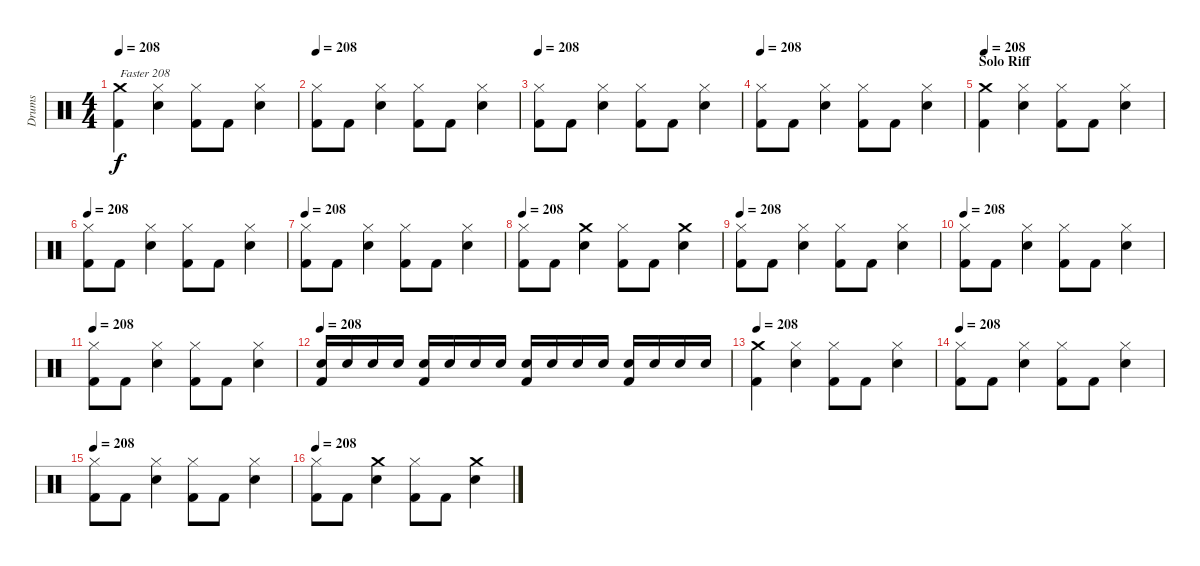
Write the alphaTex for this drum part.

\track ("Drums" "Drums") {instrument percussion}
\staff {score}
\articulation defaults
\ts (4 4)
\tempo 208
\clef neutral
\ks c
("Kick (hit) 2" "Crash medium (hit)").4{txt "Faster 208" dy f} ("Hi-Hat (closed)" "Snare (hit) 2").4 ("Kick (hit) 2" "Hi-Hat (closed)").8 "Kick (hit) 2".8 ("Snare (hit) 2" "Hi-Hat (closed)").4 |
\tempo 208
("Kick (hit) 2" "Hi-Hat (closed)").8 "Kick (hit) 2".8 ("Snare (hit) 2" "Hi-Hat (closed)").4 ("Kick (hit) 2" "Hi-Hat (closed)").8 "Kick (hit) 2".8 ("Snare (hit) 2" "Hi-Hat (closed)").4 |
\tempo 208
("Kick (hit) 2" "Hi-Hat (closed)").8 "Kick (hit) 2".8 ("Snare (hit) 2" "Hi-Hat (closed)").4 ("Kick (hit) 2" "Hi-Hat (closed)").8 "Kick (hit) 2".8 ("Snare (hit) 2" "Hi-Hat (closed)").4 |
\tempo 208
("Kick (hit) 2" "Hi-Hat (closed)").8 "Kick (hit) 2".8 ("Snare (hit) 2" "Hi-Hat (closed)").4 ("Kick (hit) 2" "Hi-Hat (closed)").8 "Kick (hit) 2".8 ("Snare (hit) 2" "Hi-Hat (closed)").4 |
\section ("" "Solo Riff")
\tempo 208
("Kick (hit) 2" "Crash medium (hit)").4 ("Hi-Hat (closed)" "Snare (hit) 2").4 ("Kick (hit) 2" "Hi-Hat (closed)").8 "Kick (hit) 2".8 ("Snare (hit) 2" "Hi-Hat (closed)").4 |
\tempo 208
("Kick (hit) 2" "Hi-Hat (closed)").8 "Kick (hit) 2".8 ("Snare (hit) 2" "Hi-Hat (closed)").4 ("Kick (hit) 2" "Hi-Hat (closed)").8 "Kick (hit) 2".8 ("Snare (hit) 2" "Hi-Hat (closed)").4 |
\tempo 208
("Kick (hit) 2" "Hi-Hat (closed)").8 "Kick (hit) 2".8 ("Snare (hit) 2" "Hi-Hat (closed)").4 ("Kick (hit) 2" "Hi-Hat (closed)").8 "Kick (hit) 2".8 ("Snare (hit) 2" "Hi-Hat (closed)").4 |
\tempo 208
("Hi-Hat (closed)" "Kick (hit) 2").8 "Kick (hit) 2".8 ("Snare (hit) 2" "Crash medium (hit)").4 ("Hi-Hat (closed)" "Kick (hit) 2").8 "Kick (hit) 2".8 ("Snare (hit) 2" "Crash medium (hit)").4 |
\tempo 208
("Kick (hit) 2" "Hi-Hat (closed)").8 "Kick (hit) 2".8 ("Snare (hit) 2" "Hi-Hat (closed)").4 ("Kick (hit) 2" "Hi-Hat (closed)").8 "Kick (hit) 2".8 ("Snare (hit) 2" "Hi-Hat (closed)").4 |
\tempo 208
("Kick (hit) 2" "Hi-Hat (closed)").8 "Kick (hit) 2".8 ("Snare (hit) 2" "Hi-Hat (closed)").4 ("Kick (hit) 2" "Hi-Hat (closed)").8 "Kick (hit) 2".8 ("Snare (hit) 2" "Hi-Hat (closed)").4 |
\tempo 208
("Kick (hit) 2" "Hi-Hat (closed)").8 "Kick (hit) 2".8 ("Snare (hit) 2" "Hi-Hat (closed)").4 ("Kick (hit) 2" "Hi-Hat (closed)").8 "Kick (hit) 2".8 ("Snare (hit) 2" "Hi-Hat (closed)").4 |
\tempo 208
("Snare (hit) 2" "Kick (hit) 2").16 "Snare (hit) 2".16 "Snare (hit) 2".16 "Snare (hit) 2".16 ("Snare (hit) 2" "Kick (hit) 2").16 "Snare (hit) 2".16 "Snare (hit) 2".16 "Snare (hit) 2".16 ("Snare (hit) 2" "Kick (hit) 2").16 "Snare (hit) 2".16 "Snare (hit) 2".16 "Snare (hit) 2".16 ("Snare (hit) 2" "Kick (hit) 2").16 "Snare (hit) 2".16 "Snare (hit) 2".16 "Snare (hit) 2".16 |
\tempo 208
("Kick (hit) 2" "Crash medium (hit)").4 ("Hi-Hat (closed)" "Snare (hit) 2").4 ("Kick (hit) 2" "Hi-Hat (closed)").8 "Kick (hit) 2".8 ("Snare (hit) 2" "Hi-Hat (closed)").4 |
\tempo 208
("Kick (hit) 2" "Hi-Hat (closed)").8 "Kick (hit) 2".8 ("Snare (hit) 2" "Hi-Hat (closed)").4 ("Kick (hit) 2" "Hi-Hat (closed)").8 "Kick (hit) 2".8 ("Snare (hit) 2" "Hi-Hat (closed)").4 |
\tempo 208
("Kick (hit) 2" "Hi-Hat (closed)").8 "Kick (hit) 2".8 ("Snare (hit) 2" "Hi-Hat (closed)").4 ("Kick (hit) 2" "Hi-Hat (closed)").8 "Kick (hit) 2".8 ("Snare (hit) 2" "Hi-Hat (closed)").4 |
\tempo 208
("Kick (hit) 2" "Hi-Hat (closed)").8 "Kick (hit) 2".8 ("Crash medium (hit)" "Snare (hit) 2").4 ("Kick (hit) 2" "Hi-Hat (closed)").8 "Kick (hit) 2".8 ("Crash medium (hit)" "Snare (hit) 2").4
